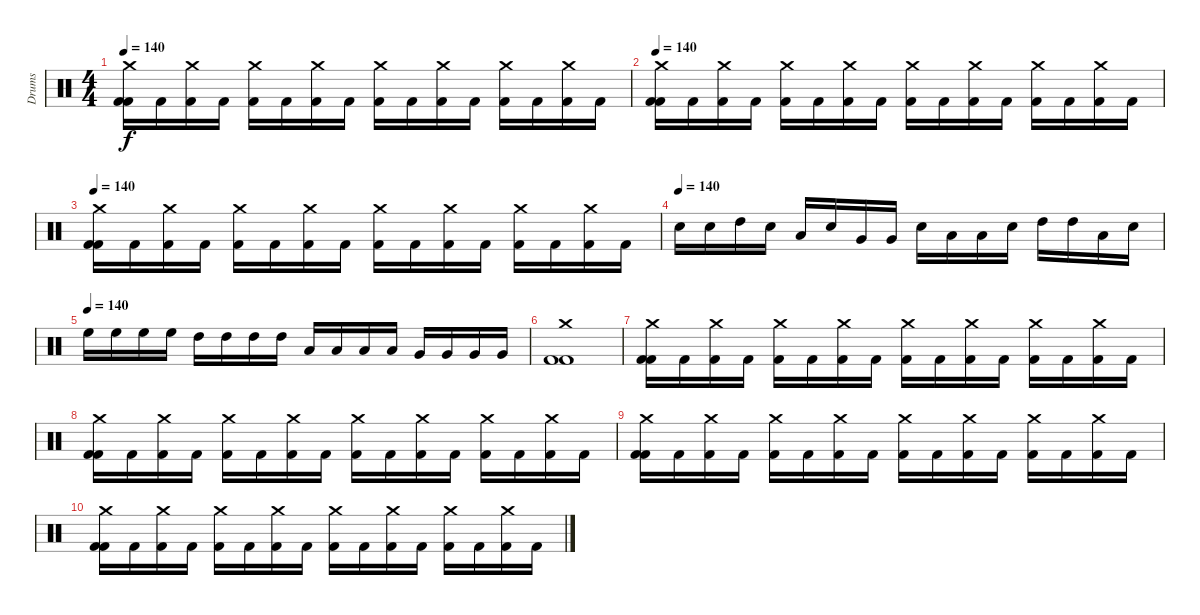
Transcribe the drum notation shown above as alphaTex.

\track ("Drums" "Drums") {instrument percussion}
\staff {score}
\articulation defaults
\ts (4 4)
\tempo 140
\clef neutral
\ks c
("Crash medium (hit)" "Kick (hit) 2" "Kick (hit) 2").16{dy f} "Kick (hit) 2".16 ("Kick (hit) 2" "Crash medium (hit)").16 "Kick (hit) 2".16 ("Crash medium (hit)" "Kick (hit) 2").16 "Kick (hit) 2".16 ("Kick (hit) 2" "Crash medium (hit)").16 "Kick (hit) 2".16 ("Crash medium (hit)" "Kick (hit) 2").16 "Kick (hit) 2".16 ("Crash medium (hit)" "Kick (hit) 2").16 "Kick (hit) 2".16 ("Crash medium (hit)" "Kick (hit) 2").16 "Kick (hit) 2".16 ("Kick (hit) 2" "Crash medium (hit)").16 "Kick (hit) 2".16 |
\tempo 140
("Crash medium (hit)" "Kick (hit) 2" "Kick (hit) 2").16 "Kick (hit) 2".16 ("Kick (hit) 2" "Crash medium (hit)").16 "Kick (hit) 2".16 ("Crash medium (hit)" "Kick (hit) 2").16 "Kick (hit) 2".16 ("Kick (hit) 2" "Crash medium (hit)").16 "Kick (hit) 2".16 ("Crash medium (hit)" "Kick (hit) 2").16 "Kick (hit) 2".16 ("Crash medium (hit)" "Kick (hit) 2").16 "Kick (hit) 2".16 ("Crash medium (hit)" "Kick (hit) 2").16 "Kick (hit) 2".16 ("Kick (hit) 2" "Crash medium (hit)").16 "Kick (hit) 2".16 |
\tempo 140
("Crash medium (hit)" "Kick (hit) 2" "Kick (hit) 2").16 "Kick (hit) 2".16 ("Kick (hit) 2" "Crash medium (hit)").16 "Kick (hit) 2".16 ("Crash medium (hit)" "Kick (hit) 2").16 "Kick (hit) 2".16 ("Kick (hit) 2" "Crash medium (hit)").16 "Kick (hit) 2".16 ("Crash medium (hit)" "Kick (hit) 2").16 "Kick (hit) 2".16 ("Crash medium (hit)" "Kick (hit) 2").16 "Kick (hit) 2".16 ("Crash medium (hit)" "Kick (hit) 2").16 "Kick (hit) 2".16 ("Kick (hit) 2" "Crash medium (hit)").16 "Kick (hit) 2".16 |
\tempo (140)
"Electric Snare (hit)".16 "Electric Snare (hit)".16 "High Tom (hit)".16 "Electric Snare (hit)".16 "Low Tom (hit)".16 "Electric Snare (hit)".16 "Very Low Tom (hit)".16 "Very Low Tom (hit)".16 "Electric Snare (hit)".16 "Low Tom (hit)".16 "Low Tom (hit)".16 "Electric Snare (hit)".16 "High Tom (hit)".16 "High Tom (hit)".16 "Low Tom (hit)".16 "Electric Snare (hit)".16 |
\tempo (140)
"High Floor Tom (hit)".16 "High Floor Tom (hit)".16 "High Floor Tom (hit)".16 "High Floor Tom (hit)".16 "High Tom (hit)".16 "High Tom (hit)".16 "High Tom (hit)".16 "High Tom (hit)".16 "Low Tom (hit)".16 "Low Tom (hit)".16 "Low Tom (hit)".16 "Low Tom (hit)".16 "Very Low Tom (hit)".16 "Very Low Tom (hit)".16 "Very Low Tom (hit)".16 "Very Low Tom (hit)".16 |
("Crash medium (hit)" "Kick (hit) 2" "Kick (hit) 2").1 |
("Crash medium (hit)" "Kick (hit) 2" "Kick (hit) 2").16 "Kick (hit) 2".16 ("Kick (hit) 2" "Crash medium (hit)").16 "Kick (hit) 2".16 ("Crash medium (hit)" "Kick (hit) 2").16 "Kick (hit) 2".16 ("Kick (hit) 2" "Crash medium (hit)").16 "Kick (hit) 2".16 ("Crash medium (hit)" "Kick (hit) 2").16 "Kick (hit) 2".16 ("Crash medium (hit)" "Kick (hit) 2").16 "Kick (hit) 2".16 ("Crash medium (hit)" "Kick (hit) 2").16 "Kick (hit) 2".16 ("Kick (hit) 2" "Crash medium (hit)").16 "Kick (hit) 2".16 |
("Crash medium (hit)" "Kick (hit) 2" "Kick (hit) 2").16 "Kick (hit) 2".16 ("Kick (hit) 2" "Crash medium (hit)").16 "Kick (hit) 2".16 ("Crash medium (hit)" "Kick (hit) 2").16 "Kick (hit) 2".16 ("Kick (hit) 2" "Crash medium (hit)").16 "Kick (hit) 2".16 ("Crash medium (hit)" "Kick (hit) 2").16 "Kick (hit) 2".16 ("Crash medium (hit)" "Kick (hit) 2").16 "Kick (hit) 2".16 ("Crash medium (hit)" "Kick (hit) 2").16 "Kick (hit) 2".16 ("Kick (hit) 2" "Crash medium (hit)").16 "Kick (hit) 2".16 |
("Crash medium (hit)" "Kick (hit) 2" "Kick (hit) 2").16 "Kick (hit) 2".16 ("Kick (hit) 2" "Crash medium (hit)").16 "Kick (hit) 2".16 ("Crash medium (hit)" "Kick (hit) 2").16 "Kick (hit) 2".16 ("Kick (hit) 2" "Crash medium (hit)").16 "Kick (hit) 2".16 ("Crash medium (hit)" "Kick (hit) 2").16 "Kick (hit) 2".16 ("Crash medium (hit)" "Kick (hit) 2").16 "Kick (hit) 2".16 ("Crash medium (hit)" "Kick (hit) 2").16 "Kick (hit) 2".16 ("Kick (hit) 2" "Crash medium (hit)").16 "Kick (hit) 2".16 |
("Crash medium (hit)" "Kick (hit) 2" "Kick (hit) 2").16 "Kick (hit) 2".16 ("Kick (hit) 2" "Crash medium (hit)").16 "Kick (hit) 2".16 ("Crash medium (hit)" "Kick (hit) 2").16 "Kick (hit) 2".16 ("Kick (hit) 2" "Crash medium (hit)").16 "Kick (hit) 2".16 ("Crash medium (hit)" "Kick (hit) 2").16 "Kick (hit) 2".16 ("Crash medium (hit)" "Kick (hit) 2").16 "Kick (hit) 2".16 ("Crash medium (hit)" "Kick (hit) 2").16 "Kick (hit) 2".16 ("Kick (hit) 2" "Crash medium (hit)").16 "Kick (hit) 2".16
